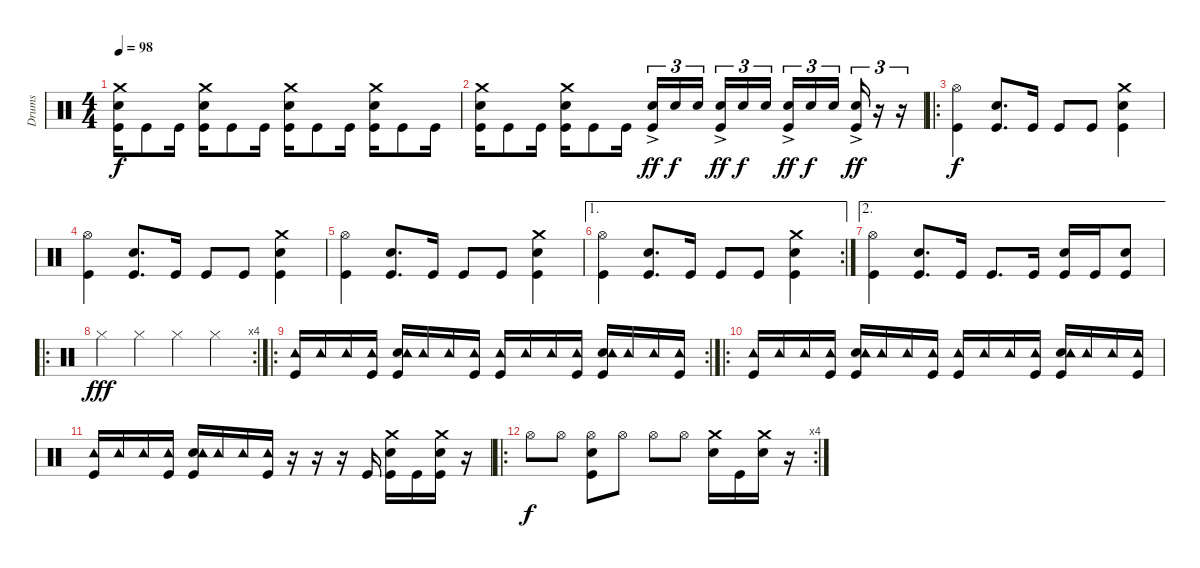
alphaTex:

\track ("Drums" "Drums") {instrument percussion}
\staff {score}
\articulation defaults
\ts (4 4)
\tempo 98
\clef neutral
\ks c
("Crash medium (hit)" "Snare (hit) 2" "Kick (hit)").16{dy f} "Kick (hit)".8 "Kick (hit)".16 ("Crash medium (hit)" "Snare (hit) 2" "Kick (hit)").16 "Kick (hit)".8 "Kick (hit)".16 ("Crash medium (hit)" "Snare (hit) 2" "Kick (hit)").16 "Kick (hit)".8 "Kick (hit)".16 ("Crash medium (hit)" "Snare (hit) 2" "Kick (hit)").16 "Kick (hit)".8 "Kick (hit)".16 |
("Crash medium (hit)" "Snare (hit) 2" "Kick (hit)").16 "Kick (hit)".8 "Kick (hit)".16 ("Crash medium (hit)" "Snare (hit) 2" "Kick (hit)").16 "Kick (hit)".8 "Kick (hit)".16 ("Snare (hit) 2"{ac} "Kick (hit)").16{tu (3 2) dy ff} "Snare (hit) 2".16{tu (3 2) dy f} "Snare (hit) 2".16{tu (3 2) beam splitsecondary} ("Snare (hit) 2"{ac} "Kick (hit)").16{tu (3 2) dy ff} "Snare (hit) 2".16{tu (3 2) dy f} "Snare (hit) 2".16{tu (3 2)} ("Snare (hit) 2"{ac} "Kick (hit)").16{tu (3 2) dy ff} "Snare (hit) 2".16{tu (3 2) dy f} "Snare (hit) 2".16{tu (3 2) beam splitsecondary} ("Snare (hit) 2"{ac} "Kick (hit)").16{tu (3 2) dy ff} r.16{tu (3 2)} r.16{tu (3 2)} |
\ro
("Hi-Hat (open)" "Kick (hit)").4{dy f} ("Snare (hit) 2" "Kick (hit)").8{d} "Kick (hit)".16 "Kick (hit)".8 "Kick (hit)".8 ("Crash medium (hit)" "Snare (hit) 2" "Kick (hit)").4 |
("Hi-Hat (open)" "Kick (hit)").4 ("Snare (hit) 2" "Kick (hit)").8{d} "Kick (hit)".16 "Kick (hit)".8 "Kick (hit)".8 ("Crash medium (hit)" "Snare (hit) 2" "Kick (hit)").4 |
("Hi-Hat (open)" "Kick (hit)").4 ("Snare (hit) 2" "Kick (hit)").8{d} "Kick (hit)".16 "Kick (hit)".8 "Kick (hit)".8 ("Crash medium (hit)" "Snare (hit) 2" "Kick (hit)").4 |
\ae 1
\rc 2
("Hi-Hat (open)" "Kick (hit)").4 ("Snare (hit) 2" "Kick (hit)").8{d} "Kick (hit)".16 "Kick (hit)".8 "Kick (hit)".8 ("Crash medium (hit)" "Snare (hit) 2" "Kick (hit)").4 |
\ae 2
("Hi-Hat (open)" "Kick (hit)").4 ("Snare (hit) 2" "Kick (hit)").8{d} "Kick (hit)".16 "Kick (hit)".8{d} "Kick (hit)".16 ("Snare (hit) 2" "Kick (hit)").16 "Kick (hit)".16 ("Snare (hit) 2" "Kick (hit)").8 |
\ro
\rc 4 "Hi-Hat (closed)".4{dy fff} "Hi-Hat (closed)".4 "Hi-Hat (closed)".4 "Hi-Hat (closed)".4
|
\ro
\rc 2
("Tambourine (hit)" "Kick (hit)").16 "Tambourine (hit)".16 "Tambourine (hit)".16 ("Tambourine (hit)" "Kick (hit)").16 ("Snare (hit) 2" "Tambourine (hit)" "Kick (hit)").16 "Tambourine (hit)".16 "Tambourine (hit)".16 ("Tambourine (hit)" "Kick (hit)").16 ("Tambourine (hit)" "Kick (hit)").16 "Tambourine (hit)".16 "Tambourine (hit)".16 ("Tambourine (hit)" "Kick (hit)").16 ("Snare (hit) 2" "Tambourine (hit)" "Kick (hit)").16 "Tambourine (hit)".16 "Tambourine (hit)".16 ("Tambourine (hit)" "Kick (hit)").16 |
\ro
("Tambourine (hit)" "Kick (hit)").16 "Tambourine (hit)".16 "Tambourine (hit)".16 ("Tambourine (hit)" "Kick (hit)").16 ("Snare (hit) 2" "Tambourine (hit)" "Kick (hit)").16 "Tambourine (hit)".16 "Tambourine (hit)".16 ("Tambourine (hit)" "Kick (hit)").16 ("Tambourine (hit)" "Kick (hit)").16 "Tambourine (hit)".16 "Tambourine (hit)".16 ("Tambourine (hit)" "Kick (hit)").16 ("Snare (hit) 2" "Tambourine (hit)" "Kick (hit)").16 "Tambourine (hit)".16 "Tambourine (hit)".16 ("Tambourine (hit)" "Kick (hit)").16 |
("Tambourine (hit)" "Kick (hit)").16 "Tambourine (hit)".16 "Tambourine (hit)".16 ("Tambourine (hit)" "Kick (hit)").16 ("Snare (hit) 2" "Tambourine (hit)" "Kick (hit)").16 "Tambourine (hit)".16 "Tambourine (hit)".16 ("Tambourine (hit)" "Kick (hit)").16 r.16 r.16 r.16 "Kick (hit)".16 ("Crash medium (hit)" "Snare (hit) 2" "Kick (hit)").16 "Kick (hit)".16 ("Crash medium (hit)" "Snare (hit) 2" "Kick (hit)").16 r.16 |
\ro
\rc 4 "Hi-Hat (open)".8{dy f} "Hi-Hat (open)".8
("Snare (hit) 2" "Hi-Hat (open)" "Kick (hit)").8 "Hi-Hat (open)".8 "Hi-Hat (open)".8 "Hi-Hat (open)".8 ("Crash medium (hit)" "Snare (hit) 2").16 "Kick (hit)".16 ("Crash medium (hit)" "Snare (hit) 2").16 r.16
